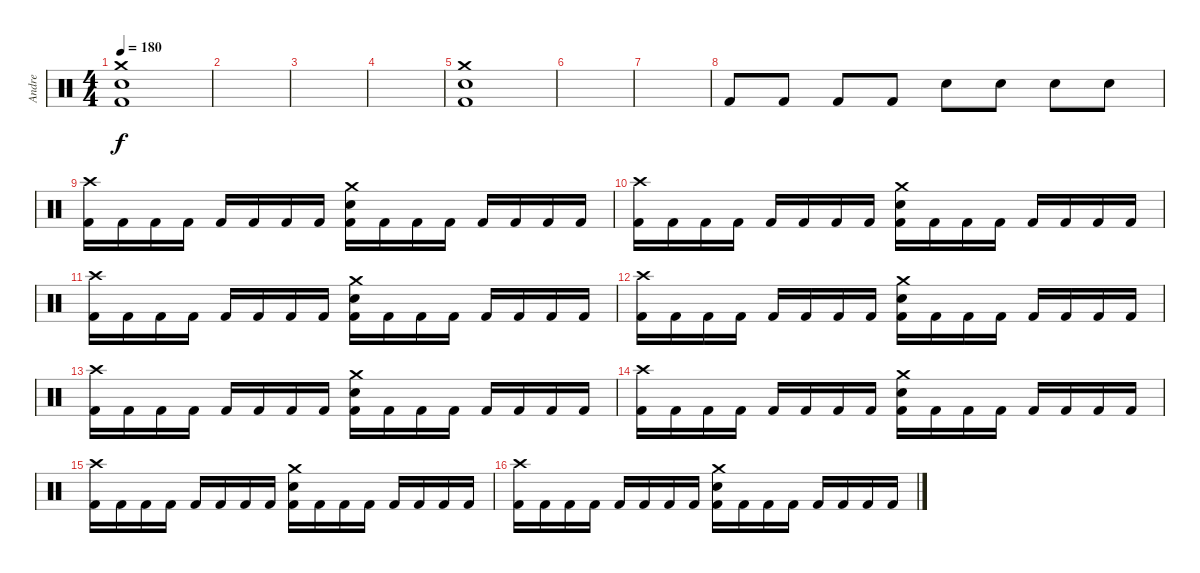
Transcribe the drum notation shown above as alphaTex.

\track ("Andre" "Andre") {instrument percussion}
\staff {score}
\articulation defaults
\ts (4 4)
\tempo 180
\clef neutral
\ks c
("Crash medium (hit)" "Snare (hit) 2" "Kick (hit) 2").1{dy f} |
|
|
|
("Crash medium (hit)" "Snare (hit) 2" "Kick (hit) 2").1 |
|
|
"Kick (hit) 2".8 "Kick (hit) 2".8 "Kick (hit) 2".8 "Kick (hit) 2".8 "Snare (hit) 2".8 "Snare (hit) 2".8 "Snare (hit) 2".8 "Snare (hit) 2".8 |
("Crash high (hit)" "Kick (hit) 2").16 "Kick (hit) 2".16 "Kick (hit) 2".16 "Kick (hit) 2".16 "Kick (hit) 2".16 "Kick (hit) 2".16 "Kick (hit) 2".16 "Kick (hit) 2".16 ("Crash medium (hit)" "Snare (hit) 2" "Kick (hit) 2").16 "Kick (hit) 2".16 "Kick (hit) 2".16 "Kick (hit) 2".16 "Kick (hit) 2".16 "Kick (hit) 2".16 "Kick (hit) 2".16 "Kick (hit) 2".16 |
("Crash high (hit)" "Kick (hit) 2").16 "Kick (hit) 2".16 "Kick (hit) 2".16 "Kick (hit) 2".16 "Kick (hit) 2".16 "Kick (hit) 2".16 "Kick (hit) 2".16 "Kick (hit) 2".16 ("Crash medium (hit)" "Snare (hit) 2" "Kick (hit) 2").16 "Kick (hit) 2".16 "Kick (hit) 2".16 "Kick (hit) 2".16 "Kick (hit) 2".16 "Kick (hit) 2".16 "Kick (hit) 2".16 "Kick (hit) 2".16 |
("Crash high (hit)" "Kick (hit) 2").16 "Kick (hit) 2".16 "Kick (hit) 2".16 "Kick (hit) 2".16 "Kick (hit) 2".16 "Kick (hit) 2".16 "Kick (hit) 2".16 "Kick (hit) 2".16 ("Crash medium (hit)" "Snare (hit) 2" "Kick (hit) 2").16 "Kick (hit) 2".16 "Kick (hit) 2".16 "Kick (hit) 2".16 "Kick (hit) 2".16 "Kick (hit) 2".16 "Kick (hit) 2".16 "Kick (hit) 2".16 |
("Crash high (hit)" "Kick (hit) 2").16 "Kick (hit) 2".16 "Kick (hit) 2".16 "Kick (hit) 2".16 "Kick (hit) 2".16 "Kick (hit) 2".16 "Kick (hit) 2".16 "Kick (hit) 2".16 ("Crash medium (hit)" "Snare (hit) 2" "Kick (hit) 2").16 "Kick (hit) 2".16 "Kick (hit) 2".16 "Kick (hit) 2".16 "Kick (hit) 2".16 "Kick (hit) 2".16 "Kick (hit) 2".16 "Kick (hit) 2".16 |
("Crash high (hit)" "Kick (hit) 2").16 "Kick (hit) 2".16 "Kick (hit) 2".16 "Kick (hit) 2".16 "Kick (hit) 2".16 "Kick (hit) 2".16 "Kick (hit) 2".16 "Kick (hit) 2".16 ("Crash medium (hit)" "Snare (hit) 2" "Kick (hit) 2").16 "Kick (hit) 2".16 "Kick (hit) 2".16 "Kick (hit) 2".16 "Kick (hit) 2".16 "Kick (hit) 2".16 "Kick (hit) 2".16 "Kick (hit) 2".16 |
("Crash high (hit)" "Kick (hit) 2").16 "Kick (hit) 2".16 "Kick (hit) 2".16 "Kick (hit) 2".16 "Kick (hit) 2".16 "Kick (hit) 2".16 "Kick (hit) 2".16 "Kick (hit) 2".16 ("Crash medium (hit)" "Snare (hit) 2" "Kick (hit) 2").16 "Kick (hit) 2".16 "Kick (hit) 2".16 "Kick (hit) 2".16 "Kick (hit) 2".16 "Kick (hit) 2".16 "Kick (hit) 2".16 "Kick (hit) 2".16 |
("Crash high (hit)" "Kick (hit) 2").16 "Kick (hit) 2".16 "Kick (hit) 2".16 "Kick (hit) 2".16 "Kick (hit) 2".16 "Kick (hit) 2".16 "Kick (hit) 2".16 "Kick (hit) 2".16 ("Crash medium (hit)" "Snare (hit) 2" "Kick (hit) 2").16 "Kick (hit) 2".16 "Kick (hit) 2".16 "Kick (hit) 2".16 "Kick (hit) 2".16 "Kick (hit) 2".16 "Kick (hit) 2".16 "Kick (hit) 2".16 |
("Crash high (hit)" "Kick (hit) 2").16 "Kick (hit) 2".16 "Kick (hit) 2".16 "Kick (hit) 2".16 "Kick (hit) 2".16 "Kick (hit) 2".16 "Kick (hit) 2".16 "Kick (hit) 2".16 ("Crash medium (hit)" "Snare (hit) 2" "Kick (hit) 2").16 "Kick (hit) 2".16 "Kick (hit) 2".16 "Kick (hit) 2".16 "Kick (hit) 2".16 "Kick (hit) 2".16 "Kick (hit) 2".16 "Kick (hit) 2".16
